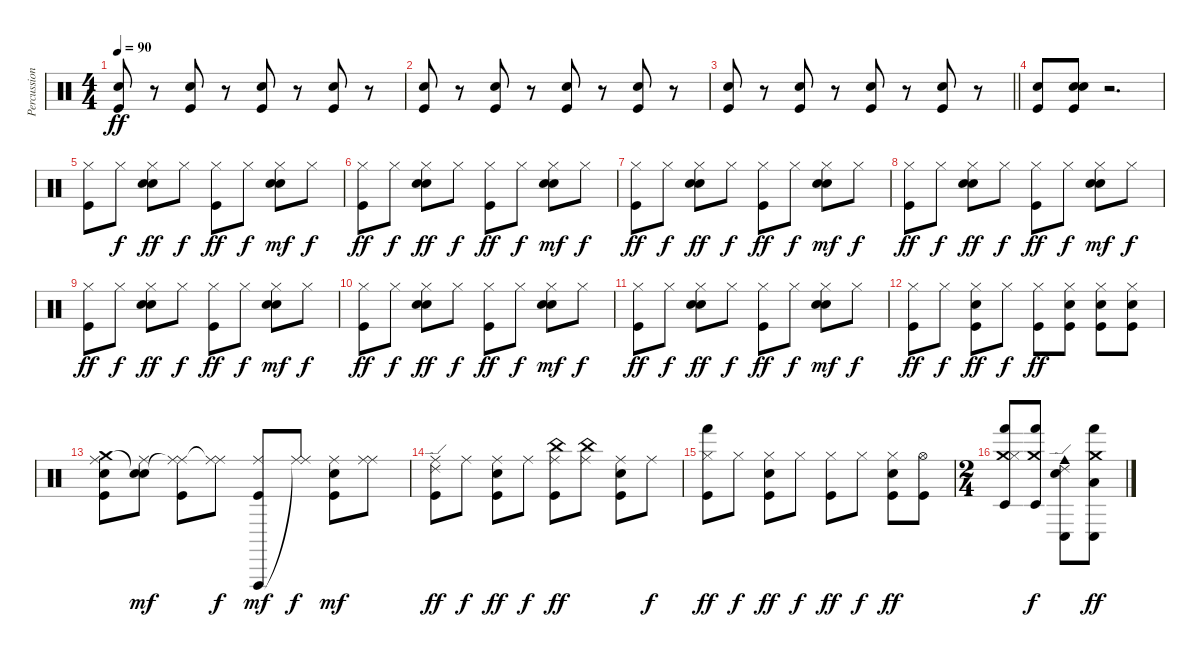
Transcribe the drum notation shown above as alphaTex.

\track ("Percussion" "Percussion") {instrument percussion}
\staff {score}
\articulation defaults
\ts (4 4)
\tempo 90
\clef neutral
\ks c
("Snare (hit) 2" "Kick (hit)").8{dy ff} r.8 ("Snare (hit) 2" "Kick (hit)").8 r.8 ("Snare (hit) 2" "Kick (hit)").8 r.8 ("Snare (hit) 2" "Kick (hit)").8 r.8 |
("Snare (hit) 2" "Kick (hit)").8 r.8 ("Snare (hit) 2" "Kick (hit)").8 r.8 ("Snare (hit) 2" "Kick (hit)").8 r.8 ("Snare (hit) 2" "Kick (hit)").8 r.8 |
\barLineRight lightlight
("Snare (hit) 2" "Kick (hit)").8 r.8 ("Snare (hit) 2" "Kick (hit)").8 r.8 ("Snare (hit) 2" "Kick (hit)").8 r.8 ("Snare (hit) 2" "Kick (hit)").8 r.8 |
("Snare (hit) 2" "Kick (hit)").8 ("Hand Clap (hit)" "Snare (hit) 2" "Kick (hit)").8 r.2{d} |
("Hi-Hat (closed)" "Kick (hit)").8 "Hi-Hat (closed)".8{dy f} ("Hand Clap (hit)" "Hi-Hat (closed)" "Snare (hit) 2").8{dy ff} "Hi-Hat (closed)".8{dy f} ("Hi-Hat (closed)" "Kick (hit)").8{dy ff} "Hi-Hat (closed)".8{dy f} ("Hand Clap (hit)" "Hi-Hat (closed)" "Snare (hit) 2").8{dy mf} "Hi-Hat (closed)".8{dy f} |
("Hi-Hat (closed)" "Kick (hit)").8{dy ff} "Hi-Hat (closed)".8{dy f} ("Hand Clap (hit)" "Hi-Hat (closed)" "Snare (hit) 2").8{dy ff} "Hi-Hat (closed)".8{dy f} ("Hi-Hat (closed)" "Kick (hit)").8{dy ff} "Hi-Hat (closed)".8{dy f} ("Hand Clap (hit)" "Hi-Hat (closed)" "Snare (hit) 2").8{dy mf} "Hi-Hat (closed)".8{dy f} |
("Hi-Hat (closed)" "Kick (hit)").8{dy ff} "Hi-Hat (closed)".8{dy f} ("Hand Clap (hit)" "Hi-Hat (closed)" "Snare (hit) 2").8{dy ff} "Hi-Hat (closed)".8{dy f} ("Hi-Hat (closed)" "Kick (hit)").8{dy ff} "Hi-Hat (closed)".8{dy f} ("Hand Clap (hit)" "Hi-Hat (closed)" "Snare (hit) 2").8{dy mf} "Hi-Hat (closed)".8{dy f} |
("Hi-Hat (closed)" "Kick (hit)").8{dy ff} "Hi-Hat (closed)".8{dy f} ("Hand Clap (hit)" "Hi-Hat (closed)" "Snare (hit) 2").8{dy ff} "Hi-Hat (closed)".8{dy f} ("Hi-Hat (closed)" "Kick (hit)").8{dy ff} "Hi-Hat (closed)".8{dy f} ("Hand Clap (hit)" "Hi-Hat (closed)" "Snare (hit) 2").8{dy mf} "Hi-Hat (closed)".8{dy f} |
("Hi-Hat (closed)" "Kick (hit)").8{dy ff} "Hi-Hat (closed)".8{dy f} ("Hand Clap (hit)" "Hi-Hat (closed)" "Snare (hit) 2").8{dy ff} "Hi-Hat (closed)".8{dy f} ("Hi-Hat (closed)" "Kick (hit)").8{dy ff} "Hi-Hat (closed)".8{dy f} ("Hand Clap (hit)" "Hi-Hat (closed)" "Snare (hit) 2").8{dy mf} "Hi-Hat (closed)".8{dy f} |
("Hi-Hat (closed)" "Kick (hit)").8{dy ff} "Hi-Hat (closed)".8{dy f} ("Hand Clap (hit)" "Hi-Hat (closed)" "Snare (hit) 2").8{dy ff} "Hi-Hat (closed)".8{dy f} ("Hi-Hat (closed)" "Kick (hit)").8{dy ff} "Hi-Hat (closed)".8{dy f} ("Hand Clap (hit)" "Hi-Hat (closed)" "Snare (hit) 2").8{dy mf} "Hi-Hat (closed)".8{dy f} |
("Hi-Hat (closed)" "Kick (hit)").8{dy ff} "Hi-Hat (closed)".8{dy f} ("Hand Clap (hit)" "Hi-Hat (closed)" "Snare (hit) 2").8{dy ff} "Hi-Hat (closed)".8{dy f} ("Hi-Hat (closed)" "Kick (hit)").8{dy ff} "Hi-Hat (closed)".8{dy f} ("Hand Clap (hit)" "Hi-Hat (closed)" "Snare (hit) 2").8{dy mf} "Hi-Hat (closed)".8{dy f} |
("Hi-Hat (closed)" "Kick (hit)").8{dy ff} "Hi-Hat (closed)".8{dy f} ("Hi-Hat (closed)" "Snare (hit) 2" "Kick (hit)").8{dy ff} "Hi-Hat (closed)".8{dy f} ("Hi-Hat (closed)" "Kick (hit)").8{dy ff} ("Hi-Hat (closed)" "Snare (hit) 2" "Kick (hit)").8 ("Hi-Hat (closed)" "Snare (hit) 2" "Kick (hit)").8 ("Hi-Hat (closed)" "Snare (hit) 2" "Kick (hit)").8 |
("Crash medium (hit)" "Ride (middle)" "Snare (hit) 2" "Kick (hit)").8 ("Hand Clap (hit)"{t} "Ride (middle)" "Hand Clap (hit)").8{dy mf} ("Ride (middle)"{t} "Ride (middle)" "Kick (hit)").8 ("Ride (middle)"{t} "Ride (middle)").8{dy f} ("Vibraslap (hit)" "Ride (middle)" "Kick (hit)").8{dy mf} ("Ride (middle)"{t} "Ride (middle)").8{dy f} ("Ride (middle)" "Snare (hit) 2" "Kick (hit)").8{dy mf} ("Ride (middle)" "Ride (middle)").8 |
("Ride (edge) 2" "Ride (middle)" "Kick (hit)").8{dy ff} "Ride (middle)".8{dy f} ("Ride (middle)" "Snare (hit) 2" "Kick (hit)").8{dy ff} "Ride (middle)".8{dy f} ("China (hit)" "Ride (middle)" "Kick (hit)").8{dy ff} ("China (hit)" "Ride (middle)").8 ("Ride (middle)" "Snare (hit) 2" "Kick (hit)").8 "Ride (middle)".8{dy f} |
("Hand (hit)" "Hi-Hat (closed)" "Kick (hit)").8{dy ff} "Hi-Hat (closed)".8{dy f} ("Hi-Hat (closed)" "Snare (hit) 2" "Kick (hit)").8{dy ff} "Hi-Hat (closed)".8{dy f} ("Hi-Hat (closed)" "Kick (hit)").8{dy ff} "Hi-Hat (closed)".8{dy f} ("Hi-Hat (closed)" "Snare (hit) 2" "Kick (hit)").8{dy ff} ("Hi-Hat (open)" "Kick (hit)").8 |
\ts (2 4)
("Timbale low (hit)" "Hand (hit)" "Crash medium (hit)" "Hi-Hat (closed)").8 ("Timbale low (hit)" "Hand (hit)" "Crash medium (hit)").8{dy f} ("Conga low (hit)" "Ride (edge) 2" "Cowbell medium (hit)" "Snare (hit) 2").8 ("Conga low (hit)" "Hand (hit)" "Crash medium (hit)" "Low Tom (hit)").8{dy ff}
